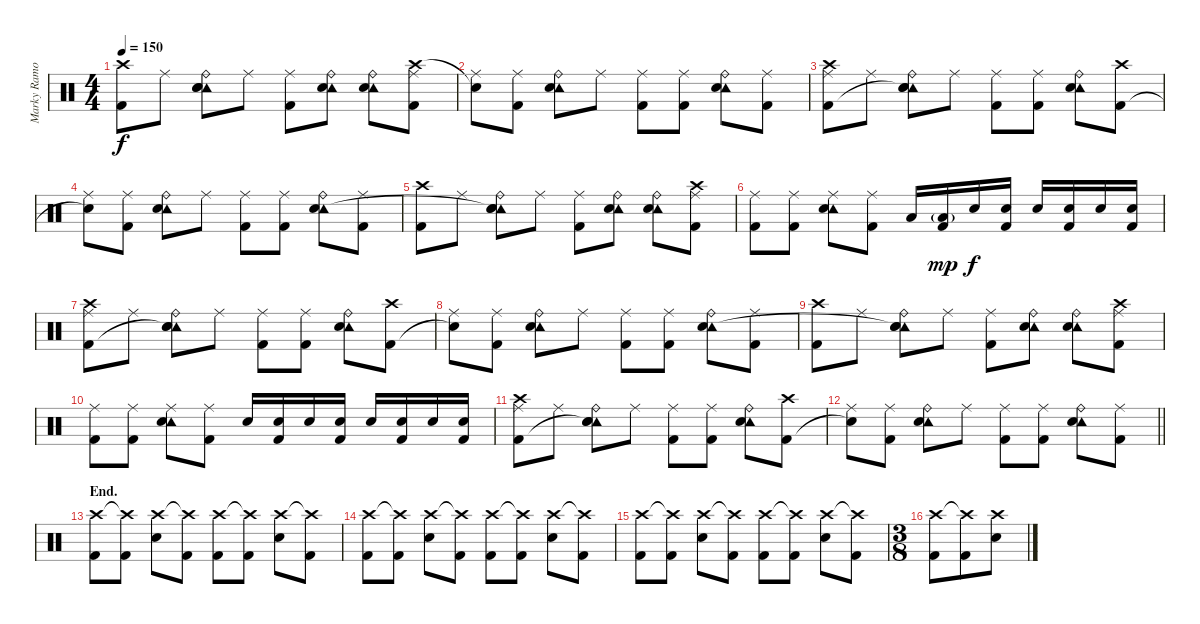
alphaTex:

\track ("Marky Ramone - Drum" "Marky Ramo") {instrument percussion}
\staff {score}
\articulation defaults
\ts (4 4)
\tempo 150
\clef neutral
\ks c
("Crash high (hit)" "Kick (hit) 2").8{dy f} "Ride (middle)".8 ("Ride (bell)" "Tambourine (hit)" "Snare (hit)"{t} "Snare (hit) 2").8 "Ride (middle)".8 ("Ride (middle)" "Kick (hit) 2").8 ("Ride (bell)" "Tambourine (hit)" "Snare (hit) 2").8 ("Ride (bell)" "Tambourine (hit)" "Snare (hit) 2").8 ("Ride (middle)" "Crash high (hit)" "Kick (hit) 2").8 |
("Ride (middle)" "Snare (hit)"{t}).8 ("Ride (middle)" "Kick (hit) 2").8 ("Ride (bell)" "Tambourine (hit)" "Snare (hit) 2").8 "Ride (middle)".8 ("Ride (middle)" "Kick (hit) 2").8 ("Ride (middle)" "Kick (hit) 2").8 ("Ride (bell)" "Tambourine (hit)" "Snare (hit) 2").8 ("Ride (middle)" "Kick (hit) 2").8 |
("Ride (middle)" "Crash high (hit)" "Kick (hit) 2").8 "Ride (middle)".8 ("Ride (bell)" "Tambourine (hit)" "Snare (hit)"{t} "Snare (hit) 2").8 "Ride (middle)".8 ("Ride (middle)" "Kick (hit) 2").8 ("Ride (middle)" "Kick (hit) 2").8 ("Ride (bell)" "Tambourine (hit)" "Snare (hit) 2").8 ("Crash high (hit)" "Kick (hit) 2").8 |
("Ride (middle)" "Snare (hit)"{t}).8 ("Ride (middle)" "Kick (hit) 2").8 ("Ride (bell)" "Tambourine (hit)" "Snare (hit) 2").8 "Ride (middle)".8 ("Ride (middle)" "Kick (hit) 2").8 ("Ride (middle)" "Kick (hit) 2").8 ("Ride (bell)" "Tambourine (hit)" "Snare (hit) 2").8 ("Ride (middle)" "Kick (hit) 2").8 |
("Crash high (hit)" "Kick (hit) 2").8 "Ride (middle)".8 ("Ride (bell)" "Tambourine (hit)" "Snare (hit)"{t} "Snare (hit) 2").8 "Ride (middle)".8 ("Ride (middle)" "Kick (hit) 2").8 ("Ride (bell)" "Tambourine (hit)" "Snare (hit) 2").8 ("Ride (bell)" "Tambourine (hit)" "Snare (hit) 2").8 ("Ride (middle)" "Crash high (hit)" "Kick (hit) 2").8 |
("Ride (middle)" "Kick (hit) 2").8 ("Ride (middle)" "Kick (hit) 2").8 ("Ride (middle)" "Tambourine (hit)" "Snare (hit) 2").8 ("Ride (middle)" "Kick (hit) 2").8 "Low Tom (hit)".16 ("Low Tom (hit)"{g} "Kick (hit) 2").16{dy mp} "Snare (hit) 2".16{dy f} ("Snare (hit) 2" "Kick (hit) 2").16 "Snare (hit) 2".16 ("Snare (hit) 2" "Kick (hit) 2").16 "Snare (hit) 2".16 ("Snare (hit) 2" "Kick (hit) 2").16 |
("Ride (middle)" "Crash high (hit)" "Kick (hit) 2").8 "Ride (middle)".8 ("Ride (bell)" "Tambourine (hit)" "Snare (hit)"{t} "Snare (hit) 2").8 "Ride (middle)".8 ("Ride (middle)" "Kick (hit) 2").8 ("Ride (middle)" "Kick (hit) 2").8 ("Ride (bell)" "Tambourine (hit)" "Snare (hit) 2").8 ("Crash high (hit)" "Kick (hit) 2").8 |
("Ride (middle)" "Snare (hit)"{t}).8 ("Ride (middle)" "Kick (hit) 2").8 ("Ride (bell)" "Tambourine (hit)" "Snare (hit) 2").8 "Ride (middle)".8 ("Ride (middle)" "Kick (hit) 2").8 ("Ride (middle)" "Kick (hit) 2").8 ("Ride (bell)" "Tambourine (hit)" "Snare (hit) 2").8 ("Ride (middle)" "Kick (hit) 2").8 |
("Crash high (hit)" "Kick (hit) 2").8 "Ride (middle)".8 ("Ride (bell)" "Tambourine (hit)" "Snare (hit)"{t} "Snare (hit) 2").8 "Ride (middle)".8 ("Ride (middle)" "Kick (hit) 2").8 ("Ride (bell)" "Tambourine (hit)" "Snare (hit) 2").8 ("Ride (bell)" "Tambourine (hit)" "Snare (hit) 2").8 ("Ride (middle)" "Crash high (hit)" "Kick (hit) 2").8 |
("Ride (middle)" "Kick (hit) 2").8 ("Ride (middle)" "Kick (hit) 2").8 ("Ride (middle)" "Tambourine (hit)" "Snare (hit) 2").8 ("Ride (middle)" "Kick (hit) 2").8 "Snare (hit) 2".16 ("Snare (hit) 2" "Kick (hit) 2").16 "Snare (hit) 2".16 ("Snare (hit) 2" "Kick (hit) 2").16 "Snare (hit) 2".16 ("Snare (hit) 2" "Kick (hit) 2").16 "Snare (hit) 2".16 ("Snare (hit) 2" "Kick (hit) 2").16 |
("Ride (middle)" "Crash high (hit)" "Kick (hit) 2").8 "Ride (middle)".8 ("Ride (bell)" "Tambourine (hit)" "Snare (hit)"{t} "Snare (hit) 2").8 "Ride (middle)".8 ("Ride (middle)" "Kick (hit) 2").8 ("Ride (middle)" "Kick (hit) 2").8 ("Ride (bell)" "Tambourine (hit)" "Snare (hit) 2").8 ("Crash high (hit)" "Kick (hit) 2").8 |
\barLineRight lightlight
("Ride (middle)" "Snare (hit)"{t}).8 ("Ride (middle)" "Kick (hit) 2").8 ("Ride (bell)" "Tambourine (hit)" "Snare (hit) 2").8 "Ride (middle)".8 ("Ride (middle)" "Kick (hit) 2").8 ("Ride (middle)" "Kick (hit) 2").8 ("Ride (bell)" "Tambourine (hit)" "Snare (hit) 2").8 ("Ride (middle)" "Kick (hit) 2").8 |
\section ("" "End.")
("Crash high (hit)" "Kick (hit) 2").8 ("Crash high (hit)"{t} "Kick (hit) 2").8 ("Crash high (hit)" "Snare (hit) 2").8 ("Crash high (hit)"{t} "Kick (hit) 2").8 ("Crash high (hit)" "Kick (hit) 2").8 ("Crash high (hit)"{t} "Kick (hit) 2").8 ("Crash high (hit)" "Snare (hit) 2").8 ("Crash high (hit)"{t} "Kick (hit) 2").8 |
("Crash high (hit)" "Kick (hit) 2").8 ("Crash high (hit)"{t} "Kick (hit) 2").8 ("Crash high (hit)" "Snare (hit) 2").8 ("Crash high (hit)"{t} "Kick (hit) 2").8 ("Crash high (hit)" "Kick (hit) 2").8 ("Crash high (hit)"{t} "Kick (hit) 2").8 ("Crash high (hit)" "Snare (hit) 2").8 ("Crash high (hit)"{t} "Kick (hit) 2").8 |
("Crash high (hit)" "Kick (hit) 2").8 ("Crash high (hit)"{t} "Kick (hit) 2").8 ("Crash high (hit)" "Snare (hit) 2").8 ("Crash high (hit)"{t} "Kick (hit) 2").8 ("Crash high (hit)" "Kick (hit) 2").8 ("Crash high (hit)"{t} "Kick (hit) 2").8 ("Crash high (hit)" "Snare (hit) 2").8 ("Crash high (hit)"{t} "Kick (hit) 2").8 |
\ts (3 8)
("Crash high (hit)" "Kick (hit) 2").8 ("Crash high (hit)"{t} "Kick (hit) 2").8 ("Crash high (hit)" "Snare (hit) 2").8
